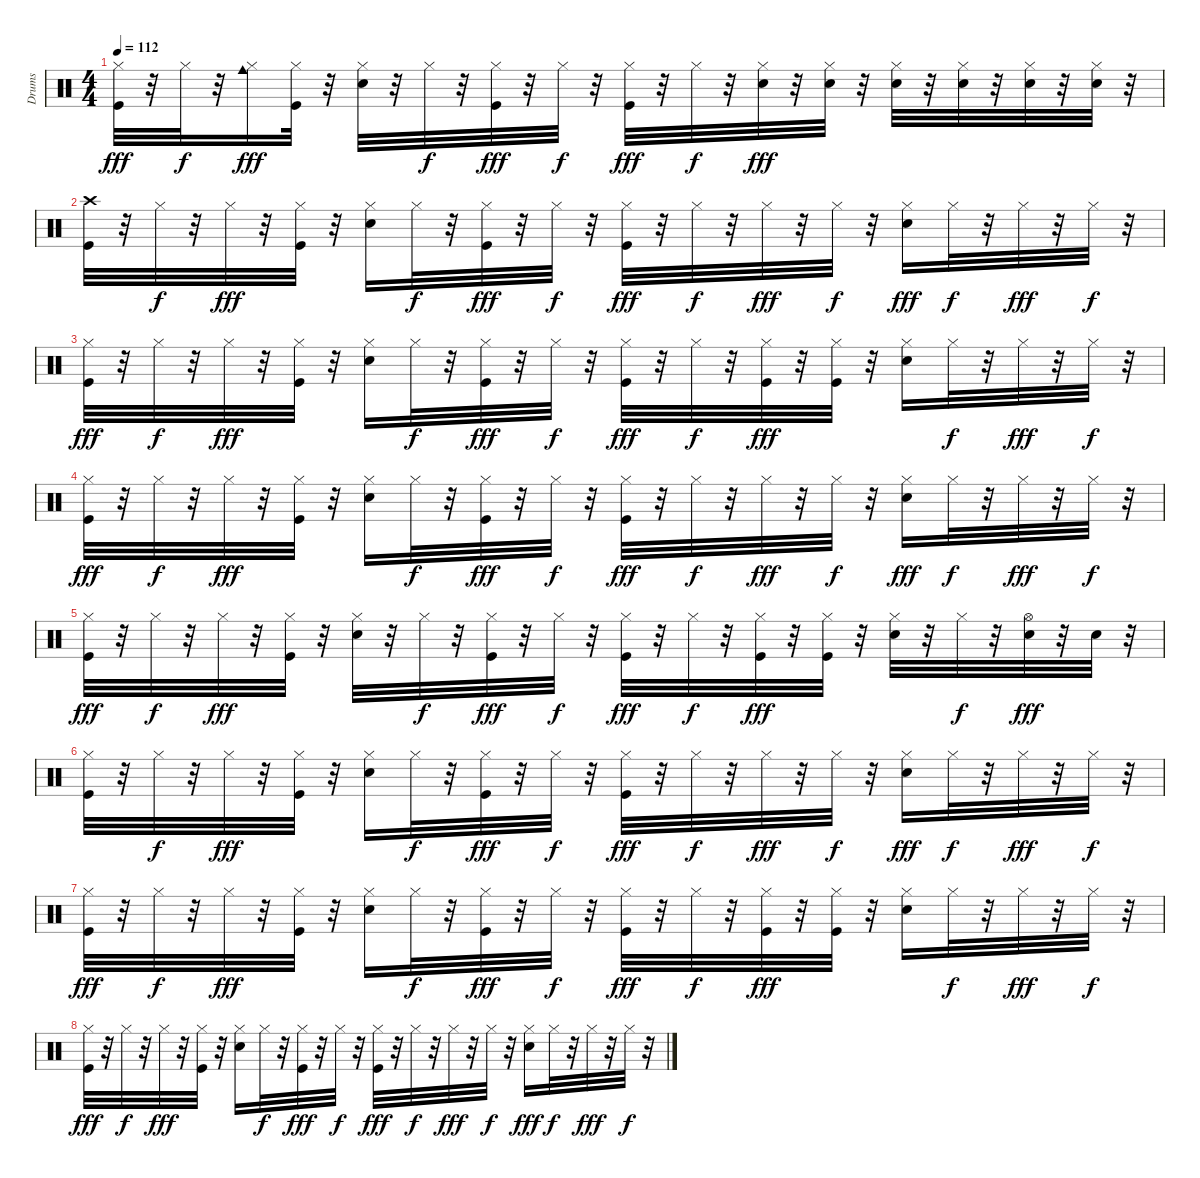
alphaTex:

\track ("Drums" "Drums") {instrument percussion}
\staff {score}
\articulation defaults
\ts (4 4)
\tempo 112
\clef neutral
\ks c
("Kick (hit)" "Hi-Hat (closed)").32{dy fff} r.32 "Hi-Hat (closed)".32{dy f} r.32 ("Hi-Hat (closed)" "Cowbell medium (hit)").16{dy fff} ("Kick (hit)" "Hi-Hat (closed)").32 r.32 ("Snare (hit) 2" "Hi-Hat (closed)").32 r.32 "Hi-Hat (closed)".32{dy f} r.32 ("Kick (hit)" "Hi-Hat (closed)").32{dy fff} r.32 "Hi-Hat (closed)".32{dy f} r.32 ("Kick (hit)" "Hi-Hat (closed)").32{dy fff} r.32 "Hi-Hat (closed)".32{dy f} r.32 ("Snare (hit) 2" "Hi-Hat (closed)").32{dy fff} r.32 ("Snare (hit) 2" "Hi-Hat (closed)").32 r.32 ("Snare (hit) 2" "Hi-Hat (closed)").32 r.32 ("Snare (hit) 2" "Hi-Hat (closed)").32 r.32 ("Snare (hit) 2" "Hi-Hat (closed)").32 r.32 ("Snare (hit) 2" "Hi-Hat (closed)").32 r.32 |
("Kick (hit)" "Crash high (hit)").32 r.32 "Hi-Hat (closed)".32{dy f} r.32 "Hi-Hat (closed)".32{dy fff} r.32 ("Kick (hit)" "Hi-Hat (closed)").32 r.32 ("Snare (hit) 2" "Hi-Hat (closed)").16 "Hi-Hat (closed)".32{dy f} r.32 ("Kick (hit)" "Hi-Hat (closed)").32{dy fff} r.32 "Hi-Hat (closed)".32{dy f} r.32 ("Kick (hit)" "Hi-Hat (closed)").32{dy fff} r.32 "Hi-Hat (closed)".32{dy f} r.32 "Hi-Hat (closed)".32{dy fff} r.32 "Hi-Hat (closed)".32{dy f} r.32 ("Snare (hit) 2" "Hi-Hat (closed)").16{dy fff} "Hi-Hat (closed)".32{dy f} r.32 "Hi-Hat (closed)".32{dy fff} r.32 "Hi-Hat (closed)".32{dy f} r.32 |
("Kick (hit)" "Hi-Hat (closed)").32{dy fff} r.32 "Hi-Hat (closed)".32{dy f} r.32 "Hi-Hat (closed)".32{dy fff} r.32 ("Kick (hit)" "Hi-Hat (closed)").32 r.32 ("Snare (hit) 2" "Hi-Hat (closed)").16 "Hi-Hat (closed)".32{dy f} r.32 ("Kick (hit)" "Hi-Hat (closed)").32{dy fff} r.32 "Hi-Hat (closed)".32{dy f} r.32 ("Kick (hit)" "Hi-Hat (closed)").32{dy fff} r.32 "Hi-Hat (closed)".32{dy f} r.32 ("Kick (hit)" "Hi-Hat (closed)").32{dy fff} r.32 ("Kick (hit)" "Hi-Hat (closed)").32 r.32 ("Snare (hit) 2" "Hi-Hat (closed)").16 "Hi-Hat (closed)".32{dy f} r.32 "Hi-Hat (closed)".32{dy fff} r.32 "Hi-Hat (closed)".32{dy f} r.32 |
("Kick (hit)" "Hi-Hat (closed)").32{dy fff} r.32 "Hi-Hat (closed)".32{dy f} r.32 "Hi-Hat (closed)".32{dy fff} r.32 ("Kick (hit)" "Hi-Hat (closed)").32 r.32 ("Snare (hit) 2" "Hi-Hat (closed)").16 "Hi-Hat (closed)".32{dy f} r.32 ("Kick (hit)" "Hi-Hat (closed)").32{dy fff} r.32 "Hi-Hat (closed)".32{dy f} r.32 ("Kick (hit)" "Hi-Hat (closed)").32{dy fff} r.32 "Hi-Hat (closed)".32{dy f} r.32 "Hi-Hat (closed)".32{dy fff} r.32 "Hi-Hat (closed)".32{dy f} r.32 ("Snare (hit) 2" "Hi-Hat (closed)").16{dy fff} "Hi-Hat (closed)".32{dy f} r.32 "Hi-Hat (closed)".32{dy fff} r.32 "Hi-Hat (closed)".32{dy f} r.32 |
("Kick (hit)" "Hi-Hat (closed)").32{dy fff} r.32 "Hi-Hat (closed)".32{dy f} r.32 "Hi-Hat (closed)".32{dy fff} r.32 ("Kick (hit)" "Hi-Hat (closed)").32 r.32 ("Snare (hit) 2" "Hi-Hat (closed)").32 r.32 "Hi-Hat (closed)".32{dy f} r.32 ("Kick (hit)" "Hi-Hat (closed)").32{dy fff} r.32 "Hi-Hat (closed)".32{dy f} r.32 ("Kick (hit)" "Hi-Hat (closed)").32{dy fff} r.32 "Hi-Hat (closed)".32{dy f} r.32 ("Kick (hit)" "Hi-Hat (closed)").32{dy fff} r.32 ("Kick (hit)" "Hi-Hat (closed)").32 r.32 ("Snare (hit) 2" "Hi-Hat (closed)").32 r.32 "Hi-Hat (closed)".32{dy f} r.32 ("Snare (hit) 2" "Hi-Hat (open)").32{dy fff} r.32 "Snare (hit) 2".32 r.32 |
("Kick (hit)" "Hi-Hat (closed)").32 r.32 "Hi-Hat (closed)".32{dy f} r.32 "Hi-Hat (closed)".32{dy fff} r.32 ("Kick (hit)" "Hi-Hat (closed)").32 r.32 ("Snare (hit) 2" "Hi-Hat (closed)").16 "Hi-Hat (closed)".32{dy f} r.32 ("Kick (hit)" "Hi-Hat (closed)").32{dy fff} r.32 "Hi-Hat (closed)".32{dy f} r.32 ("Kick (hit)" "Hi-Hat (closed)").32{dy fff} r.32 "Hi-Hat (closed)".32{dy f} r.32 "Hi-Hat (closed)".32{dy fff} r.32 "Hi-Hat (closed)".32{dy f} r.32 ("Snare (hit) 2" "Hi-Hat (closed)").16{dy fff} "Hi-Hat (closed)".32{dy f} r.32 "Hi-Hat (closed)".32{dy fff} r.32 "Hi-Hat (closed)".32{dy f} r.32 |
("Kick (hit)" "Hi-Hat (closed)").32{dy fff} r.32 "Hi-Hat (closed)".32{dy f} r.32 "Hi-Hat (closed)".32{dy fff} r.32 ("Kick (hit)" "Hi-Hat (closed)").32 r.32 ("Snare (hit) 2" "Hi-Hat (closed)").16 "Hi-Hat (closed)".32{dy f} r.32 ("Kick (hit)" "Hi-Hat (closed)").32{dy fff} r.32 "Hi-Hat (closed)".32{dy f} r.32 ("Kick (hit)" "Hi-Hat (closed)").32{dy fff} r.32 "Hi-Hat (closed)".32{dy f} r.32 ("Kick (hit)" "Hi-Hat (closed)").32{dy fff} r.32 ("Kick (hit)" "Hi-Hat (closed)").32 r.32 ("Snare (hit) 2" "Hi-Hat (closed)").16 "Hi-Hat (closed)".32{dy f} r.32 "Hi-Hat (closed)".32{dy fff} r.32 "Hi-Hat (closed)".32{dy f} r.32 |
("Kick (hit)" "Hi-Hat (closed)").32{dy fff} r.32 "Hi-Hat (closed)".32{dy f} r.32 "Hi-Hat (closed)".32{dy fff} r.32 ("Kick (hit)" "Hi-Hat (closed)").32 r.32 ("Snare (hit) 2" "Hi-Hat (closed)").16 "Hi-Hat (closed)".32{dy f} r.32 ("Kick (hit)" "Hi-Hat (closed)").32{dy fff} r.32 "Hi-Hat (closed)".32{dy f} r.32 ("Kick (hit)" "Hi-Hat (closed)").32{dy fff} r.32 "Hi-Hat (closed)".32{dy f} r.32 "Hi-Hat (closed)".32{dy fff} r.32 "Hi-Hat (closed)".32{dy f} r.32 ("Snare (hit) 2" "Hi-Hat (closed)").16{dy fff} "Hi-Hat (closed)".32{dy f} r.32 "Hi-Hat (closed)".32{dy fff} r.32 "Hi-Hat (closed)".32{dy f} r.32
